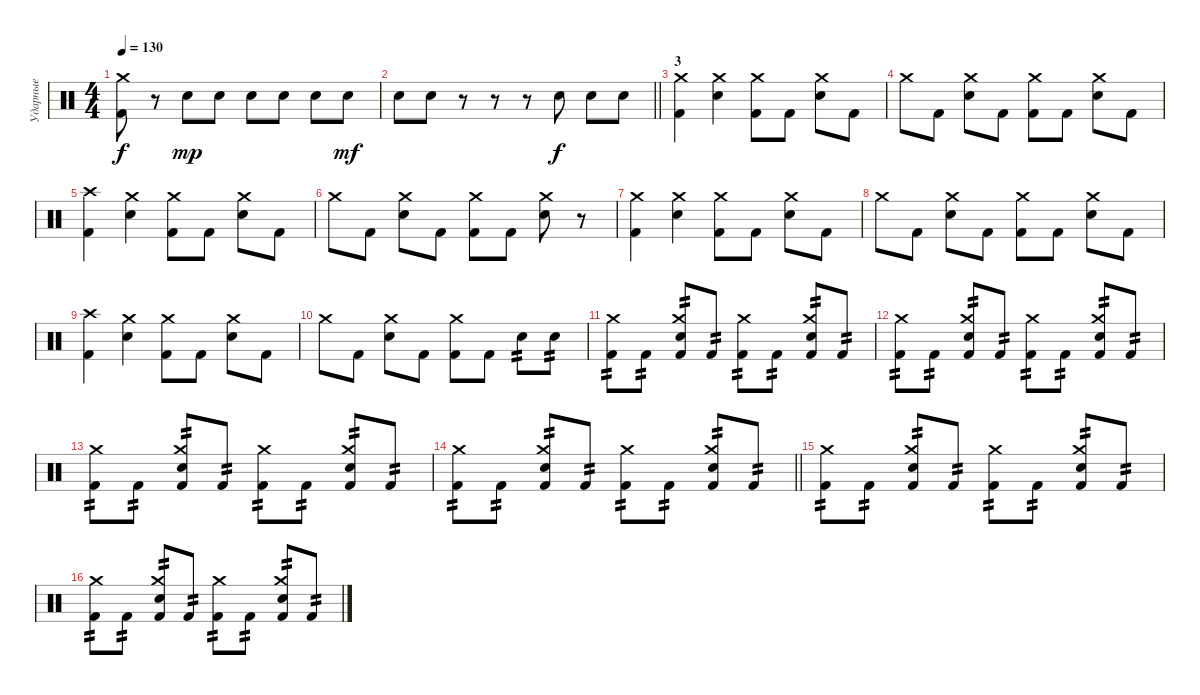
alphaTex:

\track ("Ударные" "Ударные") {instrument percussion}
\staff {score}
\articulation defaults
\ts (4 4)
\tempo 130
\clef neutral
\ks c
("Kick (hit) 2" "Crash medium (hit)").8{dy f} r.8 "Snare (hit) 2".8{dy mp} "Snare (hit) 2".8 "Snare (hit) 2".8 "Snare (hit) 2".8 "Snare (hit) 2".8 "Snare (hit) 2".8{dy mf} |
\barLineRight lightlight "Snare (hit) 2".8 "Snare (hit) 2".8
r.8 r.8 r.8 "Snare (hit) 2".8{dy f} "Snare (hit) 2".8 "Snare (hit) 2".8 |
\section ("" "3")
("Kick (hit) 2" "Crash medium (hit)").4 ("Snare (hit) 2" "Crash medium (hit)").4 ("Kick (hit) 2" "Crash medium (hit)").8 "Kick (hit) 2".8 ("Snare (hit) 2" "Crash medium (hit)").8 "Kick (hit) 2".8 |
"Crash medium (hit)".8 "Kick (hit) 2".8 ("Snare (hit) 2" "Crash medium (hit)").8 "Kick (hit) 2".8 ("Kick (hit) 2" "Crash medium (hit)").8 "Kick (hit) 2".8 ("Snare (hit) 2" "Crash medium (hit)").8 "Kick (hit) 2".8 |
("Kick (hit) 2" "Crash high (hit)").4 ("Snare (hit) 2" "Crash medium (hit)").4 ("Kick (hit) 2" "Crash medium (hit)").8 "Kick (hit) 2".8 ("Snare (hit) 2" "Crash medium (hit)").8 "Kick (hit) 2".8 |
"Crash medium (hit)".8 "Kick (hit) 2".8 ("Snare (hit) 2" "Crash medium (hit)").8 "Kick (hit) 2".8 ("Kick (hit) 2" "Crash medium (hit)").8 "Kick (hit) 2".8 ("Snare (hit) 2" "Crash medium (hit)").8 r.8 |
("Kick (hit) 2" "Crash medium (hit)").4 ("Snare (hit) 2" "Crash medium (hit)").4 ("Kick (hit) 2" "Crash medium (hit)").8 "Kick (hit) 2".8 ("Snare (hit) 2" "Crash medium (hit)").8 "Kick (hit) 2".8 |
"Crash medium (hit)".8 "Kick (hit) 2".8 ("Snare (hit) 2" "Crash medium (hit)").8 "Kick (hit) 2".8 ("Kick (hit) 2" "Crash medium (hit)").8 "Kick (hit) 2".8 ("Snare (hit) 2" "Crash medium (hit)").8 "Kick (hit) 2".8 |
("Kick (hit) 2" "Crash high (hit)").4 ("Snare (hit) 2" "Crash medium (hit)").4 ("Kick (hit) 2" "Crash medium (hit)").8 "Kick (hit) 2".8 ("Snare (hit) 2" "Crash medium (hit)").8 "Kick (hit) 2".8 |
"Crash medium (hit)".8 "Kick (hit) 2".8 ("Snare (hit) 2" "Crash medium (hit)").8 "Kick (hit) 2".8 ("Kick (hit) 2" "Crash medium (hit)").8 "Kick (hit) 2".8 "Snare (hit) 2".8{tp 2} "Snare (hit) 2".8{tp 2} |
("Crash medium (hit)" "Kick (hit) 2").8{tp 2} "Kick (hit) 2".8{tp 2} ("Crash medium (hit)" "Kick (hit) 2" "Snare (hit) 2").8{tp 2} "Kick (hit) 2".8{tp 2} ("Crash medium (hit)" "Kick (hit) 2").8{tp 2} "Kick (hit) 2".8{tp 2} ("Crash medium (hit)" "Kick (hit) 2" "Snare (hit) 2").8{tp 2} "Kick (hit) 2".8{tp 2} |
("Crash medium (hit)" "Kick (hit) 2").8{tp 2} "Kick (hit) 2".8{tp 2} ("Crash medium (hit)" "Kick (hit) 2" "Snare (hit) 2").8{tp 2} "Kick (hit) 2".8{tp 2} ("Crash medium (hit)" "Kick (hit) 2").8{tp 2} "Kick (hit) 2".8{tp 2} ("Crash medium (hit)" "Kick (hit) 2" "Snare (hit) 2").8{tp 2} "Kick (hit) 2".8{tp 2} |
("Crash medium (hit)" "Kick (hit) 2").8{tp 2} "Kick (hit) 2".8{tp 2} ("Crash medium (hit)" "Kick (hit) 2" "Snare (hit) 2").8{tp 2} "Kick (hit) 2".8{tp 2} ("Crash medium (hit)" "Kick (hit) 2").8{tp 2} "Kick (hit) 2".8{tp 2} ("Crash medium (hit)" "Kick (hit) 2" "Snare (hit) 2").8{tp 2} "Kick (hit) 2".8{tp 2} |
\barLineRight lightlight
("Crash medium (hit)" "Kick (hit) 2").8{tp 2} "Kick (hit) 2".8{tp 2} ("Crash medium (hit)" "Kick (hit) 2" "Snare (hit) 2").8{tp 2} "Kick (hit) 2".8{tp 2} ("Crash medium (hit)" "Kick (hit) 2").8{tp 2} "Kick (hit) 2".8{tp 2} ("Crash medium (hit)" "Kick (hit) 2" "Snare (hit) 2").8{tp 2} "Kick (hit) 2".8{tp 2} |
("Crash medium (hit)" "Kick (hit) 2").8{tp 2} "Kick (hit) 2".8{tp 2} ("Crash medium (hit)" "Kick (hit) 2" "Snare (hit) 2").8{tp 2} "Kick (hit) 2".8{tp 2} ("Crash medium (hit)" "Kick (hit) 2").8{tp 2} "Kick (hit) 2".8{tp 2} ("Crash medium (hit)" "Kick (hit) 2" "Snare (hit) 2").8{tp 2} "Kick (hit) 2".8{tp 2} |
("Crash medium (hit)" "Kick (hit) 2").8{tp 2} "Kick (hit) 2".8{tp 2} ("Crash medium (hit)" "Kick (hit) 2" "Snare (hit) 2").8{tp 2} "Kick (hit) 2".8{tp 2} ("Crash medium (hit)" "Kick (hit) 2").8{tp 2} "Kick (hit) 2".8{tp 2} ("Crash medium (hit)" "Kick (hit) 2" "Snare (hit) 2").8{tp 2} "Kick (hit) 2".8{tp 2}
